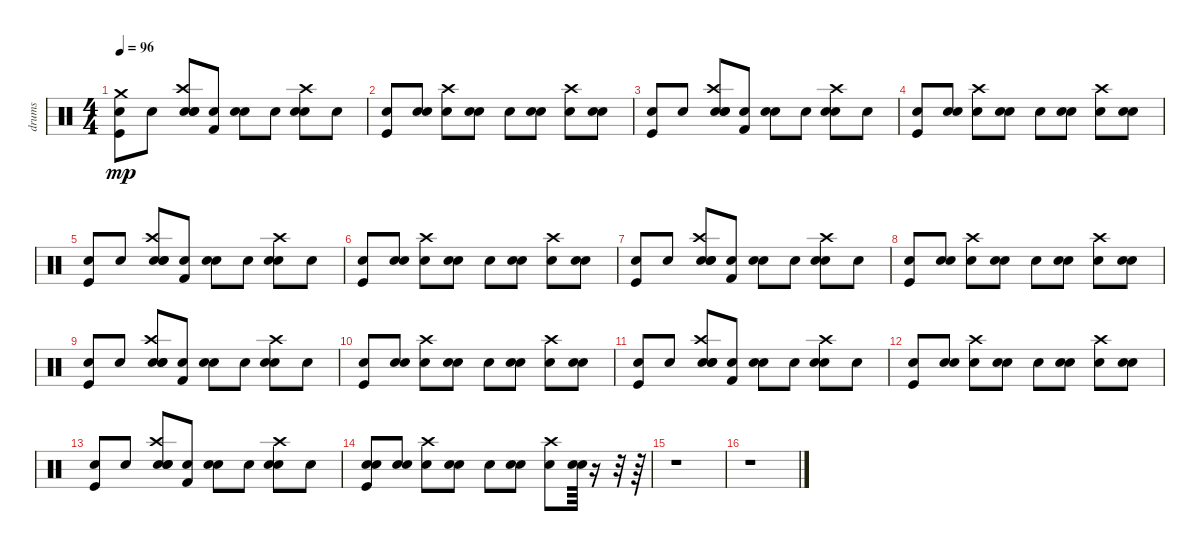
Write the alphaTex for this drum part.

\track ("drums" "drums") {instrument percussion}
\staff {score}
\articulation defaults
\ts (4 4)
\tempo 96
\clef neutral
\ks c
("Crash medium (hit)" "Snare (hit) 2" "Kick (hit)").8{dy mp} "Snare (hit) 2".8 ("Snare (hit) 2" "Crash high (hit)" "Electric Snare (hit)" "Snare (hit) 2").8 ("Snare (hit) 2" "Kick (hit) 2").8 ("Snare (hit) 2" "Snare (hit) 2").8 "Snare (hit) 2".8 ("Snare (hit) 2" "Snare (hit) 2" "Crash high (hit)").8 "Snare (hit) 2".8 |
("Kick (hit)" "Snare (hit) 2").8 ("Snare (hit) 2" "Snare (hit) 2").8 ("Crash high (hit)" "Snare (hit) 2").8 ("Snare (hit) 2" "Snare (hit) 2").8 "Snare (hit) 2".8 ("Snare (hit) 2" "Snare (hit) 2").8 ("Snare (hit) 2" "Crash high (hit)").8 ("Snare (hit) 2" "Snare (hit) 2").8 |
("Snare (hit) 2" "Kick (hit)").8 "Snare (hit) 2".8 ("Snare (hit) 2" "Crash high (hit)" "Electric Snare (hit)" "Snare (hit) 2").8 ("Kick (hit) 2" "Snare (hit) 2").8 ("Snare (hit) 2" "Snare (hit) 2").8 "Snare (hit) 2".8 ("Snare (hit) 2" "Snare (hit) 2" "Crash high (hit)").8 "Snare (hit) 2".8 |
("Kick (hit)" "Snare (hit) 2").8 ("Snare (hit) 2" "Snare (hit) 2").8 ("Crash high (hit)" "Snare (hit) 2").8 ("Snare (hit) 2" "Snare (hit) 2").8 "Snare (hit) 2".8 ("Snare (hit) 2" "Snare (hit) 2").8 ("Snare (hit) 2" "Crash high (hit)").8 ("Snare (hit) 2" "Snare (hit) 2").8 |
("Snare (hit) 2" "Kick (hit)").8 "Snare (hit) 2".8 ("Snare (hit) 2" "Crash high (hit)" "Electric Snare (hit)" "Snare (hit) 2").8 ("Kick (hit) 2" "Snare (hit) 2").8 ("Snare (hit) 2" "Snare (hit) 2").8 "Snare (hit) 2".8 ("Snare (hit) 2" "Snare (hit) 2" "Crash high (hit)").8 "Snare (hit) 2".8 |
("Kick (hit)" "Snare (hit) 2").8 ("Snare (hit) 2" "Snare (hit) 2").8 ("Crash high (hit)" "Snare (hit) 2").8 ("Snare (hit) 2" "Snare (hit) 2").8 "Snare (hit) 2".8 ("Snare (hit) 2" "Snare (hit) 2").8 ("Snare (hit) 2" "Crash high (hit)").8 ("Snare (hit) 2" "Snare (hit) 2").8 |
("Snare (hit) 2" "Kick (hit)").8 "Snare (hit) 2".8 ("Snare (hit) 2" "Electric Snare (hit)" "Crash high (hit)" "Snare (hit) 2").8 ("Snare (hit) 2" "Kick (hit) 2").8 ("Snare (hit) 2" "Snare (hit) 2").8 "Snare (hit) 2".8 ("Snare (hit) 2" "Snare (hit) 2" "Crash high (hit)").8 "Snare (hit) 2".8 |
("Kick (hit)" "Snare (hit) 2").8 ("Snare (hit) 2" "Snare (hit) 2").8 ("Crash high (hit)" "Snare (hit) 2").8 ("Snare (hit) 2" "Snare (hit) 2").8 "Snare (hit) 2".8 ("Snare (hit) 2" "Snare (hit) 2").8 ("Snare (hit) 2" "Crash high (hit)").8 ("Snare (hit) 2" "Snare (hit) 2").8 |
("Snare (hit) 2" "Kick (hit)").8 "Snare (hit) 2".8 ("Snare (hit) 2" "Crash high (hit)" "Electric Snare (hit)" "Snare (hit) 2").8 ("Kick (hit) 2" "Snare (hit) 2").8 ("Snare (hit) 2" "Snare (hit) 2").8 "Snare (hit) 2".8 ("Snare (hit) 2" "Snare (hit) 2" "Crash high (hit)").8 "Snare (hit) 2".8 |
("Kick (hit)" "Snare (hit) 2").8 ("Snare (hit) 2" "Snare (hit) 2").8 ("Crash high (hit)" "Snare (hit) 2").8 ("Snare (hit) 2" "Snare (hit) 2").8 "Snare (hit) 2".8 ("Snare (hit) 2" "Snare (hit) 2").8 ("Snare (hit) 2" "Crash high (hit)").8 ("Snare (hit) 2" "Snare (hit) 2").8 |
("Snare (hit) 2" "Kick (hit)").8 "Snare (hit) 2".8 ("Snare (hit) 2" "Crash high (hit)" "Electric Snare (hit)" "Snare (hit) 2").8 ("Kick (hit) 2" "Snare (hit) 2").8 ("Snare (hit) 2" "Snare (hit) 2").8 "Snare (hit) 2".8 ("Snare (hit) 2" "Snare (hit) 2" "Crash high (hit)").8 "Snare (hit) 2".8 |
("Kick (hit)" "Snare (hit) 2").8 ("Snare (hit) 2" "Snare (hit) 2").8 ("Crash high (hit)" "Snare (hit) 2").8 ("Snare (hit) 2" "Snare (hit) 2").8 "Snare (hit) 2".8 ("Snare (hit) 2" "Snare (hit) 2").8 ("Snare (hit) 2" "Crash high (hit)").8 ("Snare (hit) 2" "Snare (hit) 2").8 |
("Snare (hit) 2" "Kick (hit)").8 "Snare (hit) 2".8 ("Snare (hit) 2" "Snare (hit) 2" "Electric Snare (hit)" "Crash high (hit)").8 ("Kick (hit) 2" "Snare (hit) 2").8 ("Snare (hit) 2" "Snare (hit) 2").8 "Snare (hit) 2".8 ("Snare (hit) 2" "Snare (hit) 2" "Crash high (hit)").8 "Snare (hit) 2".8 |
("Kick (hit)" "Snare (hit) 2" "Snare (hit) 2").8 ("Snare (hit) 2" "Snare (hit) 2").8 ("Snare (hit) 2" "Crash high (hit)").8 ("Snare (hit) 2" "Snare (hit) 2").8 "Snare (hit) 2".8 ("Snare (hit) 2" "Snare (hit) 2").8 ("Snare (hit) 2" "Crash high (hit)").8 ("Snare (hit) 2" "Snare (hit) 2").64 r.16 r.32 r.64 |
r.1 |
r.1
